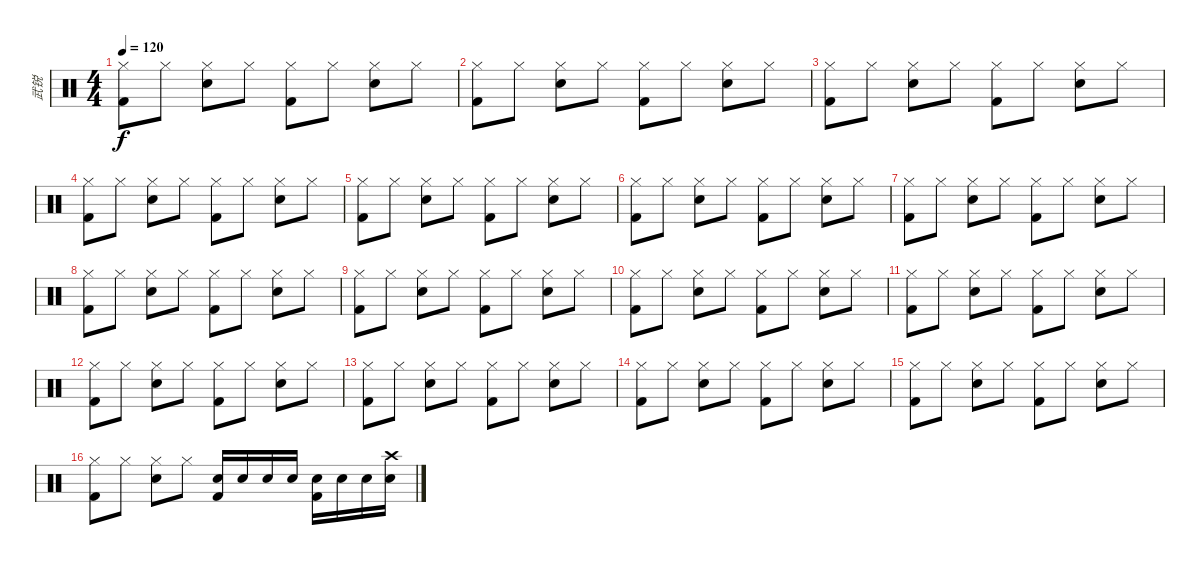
\track ("武锐" "武锐") {instrument percussion}
\staff {score}
\articulation defaults
\ts (4 4)
\tempo 120
\clef neutral
\ks c
("Hi-Hat (closed)" "Kick (hit) 2").8{dy f} "Hi-Hat (closed)".8 ("Hi-Hat (closed)" "Snare (hit) 2").8 "Hi-Hat (closed)".8 ("Hi-Hat (closed)" "Kick (hit) 2").8 "Hi-Hat (closed)".8 ("Hi-Hat (closed)" "Snare (hit) 2").8 "Hi-Hat (closed)".8 |
("Hi-Hat (closed)" "Kick (hit) 2").8 "Hi-Hat (closed)".8 ("Hi-Hat (closed)" "Snare (hit) 2").8 "Hi-Hat (closed)".8 ("Hi-Hat (closed)" "Kick (hit) 2").8 "Hi-Hat (closed)".8 ("Hi-Hat (closed)" "Snare (hit) 2").8 "Hi-Hat (closed)".8 |
("Hi-Hat (closed)" "Kick (hit) 2").8 "Hi-Hat (closed)".8 ("Hi-Hat (closed)" "Snare (hit) 2").8 "Hi-Hat (closed)".8 ("Hi-Hat (closed)" "Kick (hit) 2").8 "Hi-Hat (closed)".8 ("Hi-Hat (closed)" "Snare (hit) 2").8 "Hi-Hat (closed)".8 |
("Hi-Hat (closed)" "Kick (hit) 2").8 "Hi-Hat (closed)".8 ("Hi-Hat (closed)" "Snare (hit) 2").8 "Hi-Hat (closed)".8 ("Hi-Hat (closed)" "Kick (hit) 2").8 "Hi-Hat (closed)".8 ("Hi-Hat (closed)" "Snare (hit) 2").8 "Hi-Hat (closed)".8 |
("Hi-Hat (closed)" "Kick (hit) 2").8 "Hi-Hat (closed)".8 ("Hi-Hat (closed)" "Snare (hit) 2").8 "Hi-Hat (closed)".8 ("Hi-Hat (closed)" "Kick (hit) 2").8 "Hi-Hat (closed)".8 ("Hi-Hat (closed)" "Snare (hit) 2").8 "Hi-Hat (closed)".8 |
("Hi-Hat (closed)" "Kick (hit) 2").8 "Hi-Hat (closed)".8 ("Hi-Hat (closed)" "Snare (hit) 2").8 "Hi-Hat (closed)".8 ("Hi-Hat (closed)" "Kick (hit) 2").8 "Hi-Hat (closed)".8 ("Hi-Hat (closed)" "Snare (hit) 2").8 "Hi-Hat (closed)".8 |
("Hi-Hat (closed)" "Kick (hit) 2").8 "Hi-Hat (closed)".8 ("Hi-Hat (closed)" "Snare (hit) 2").8 "Hi-Hat (closed)".8 ("Hi-Hat (closed)" "Kick (hit) 2").8 "Hi-Hat (closed)".8 ("Hi-Hat (closed)" "Snare (hit) 2").8 "Hi-Hat (closed)".8 |
("Hi-Hat (closed)" "Kick (hit) 2").8 "Hi-Hat (closed)".8 ("Hi-Hat (closed)" "Snare (hit) 2").8 "Hi-Hat (closed)".8 ("Hi-Hat (closed)" "Kick (hit) 2").8 "Hi-Hat (closed)".8 ("Hi-Hat (closed)" "Snare (hit) 2").8 "Hi-Hat (closed)".8 |
("Hi-Hat (closed)" "Kick (hit) 2").8 "Hi-Hat (closed)".8 ("Hi-Hat (closed)" "Snare (hit) 2").8 "Hi-Hat (closed)".8 ("Hi-Hat (closed)" "Kick (hit) 2").8 "Hi-Hat (closed)".8 ("Hi-Hat (closed)" "Snare (hit) 2").8 "Hi-Hat (closed)".8 |
("Hi-Hat (closed)" "Kick (hit) 2").8 "Hi-Hat (closed)".8 ("Hi-Hat (closed)" "Snare (hit) 2").8 "Hi-Hat (closed)".8 ("Hi-Hat (closed)" "Kick (hit) 2").8 "Hi-Hat (closed)".8 ("Hi-Hat (closed)" "Snare (hit) 2").8 "Hi-Hat (closed)".8 |
("Hi-Hat (closed)" "Kick (hit) 2").8 "Hi-Hat (closed)".8 ("Hi-Hat (closed)" "Snare (hit) 2").8 "Hi-Hat (closed)".8 ("Hi-Hat (closed)" "Kick (hit) 2").8 "Hi-Hat (closed)".8 ("Hi-Hat (closed)" "Snare (hit) 2").8 "Hi-Hat (closed)".8 |
("Hi-Hat (closed)" "Kick (hit) 2").8 "Hi-Hat (closed)".8 ("Hi-Hat (closed)" "Snare (hit) 2").8 "Hi-Hat (closed)".8 ("Hi-Hat (closed)" "Kick (hit) 2").8 "Hi-Hat (closed)".8 ("Hi-Hat (closed)" "Snare (hit) 2").8 "Hi-Hat (closed)".8 |
("Hi-Hat (closed)" "Kick (hit) 2").8 "Hi-Hat (closed)".8 ("Hi-Hat (closed)" "Snare (hit) 2").8 "Hi-Hat (closed)".8 ("Hi-Hat (closed)" "Kick (hit) 2").8 "Hi-Hat (closed)".8 ("Hi-Hat (closed)" "Snare (hit) 2").8 "Hi-Hat (closed)".8 |
("Hi-Hat (closed)" "Kick (hit) 2").8 "Hi-Hat (closed)".8 ("Hi-Hat (closed)" "Snare (hit) 2").8 "Hi-Hat (closed)".8 ("Hi-Hat (closed)" "Kick (hit) 2").8 "Hi-Hat (closed)".8 ("Hi-Hat (closed)" "Snare (hit) 2").8 "Hi-Hat (closed)".8 |
("Hi-Hat (closed)" "Kick (hit) 2").8 "Hi-Hat (closed)".8 ("Hi-Hat (closed)" "Snare (hit) 2").8 "Hi-Hat (closed)".8 ("Hi-Hat (closed)" "Kick (hit) 2").8 "Hi-Hat (closed)".8 ("Hi-Hat (closed)" "Snare (hit) 2").8 "Hi-Hat (closed)".8 |
("Hi-Hat (closed)" "Kick (hit) 2").8 "Hi-Hat (closed)".8 ("Hi-Hat (closed)" "Snare (hit) 2").8 "Hi-Hat (closed)".8 ("Snare (hit) 2" "Kick (hit) 2").16 "Snare (hit) 2".16 "Snare (hit) 2".16 "Snare (hit) 2".16 ("Snare (hit) 2" "Kick (hit) 2").16 "Snare (hit) 2".16 "Snare (hit) 2".16 ("Crash high (hit)" "Snare (hit) 2").16
